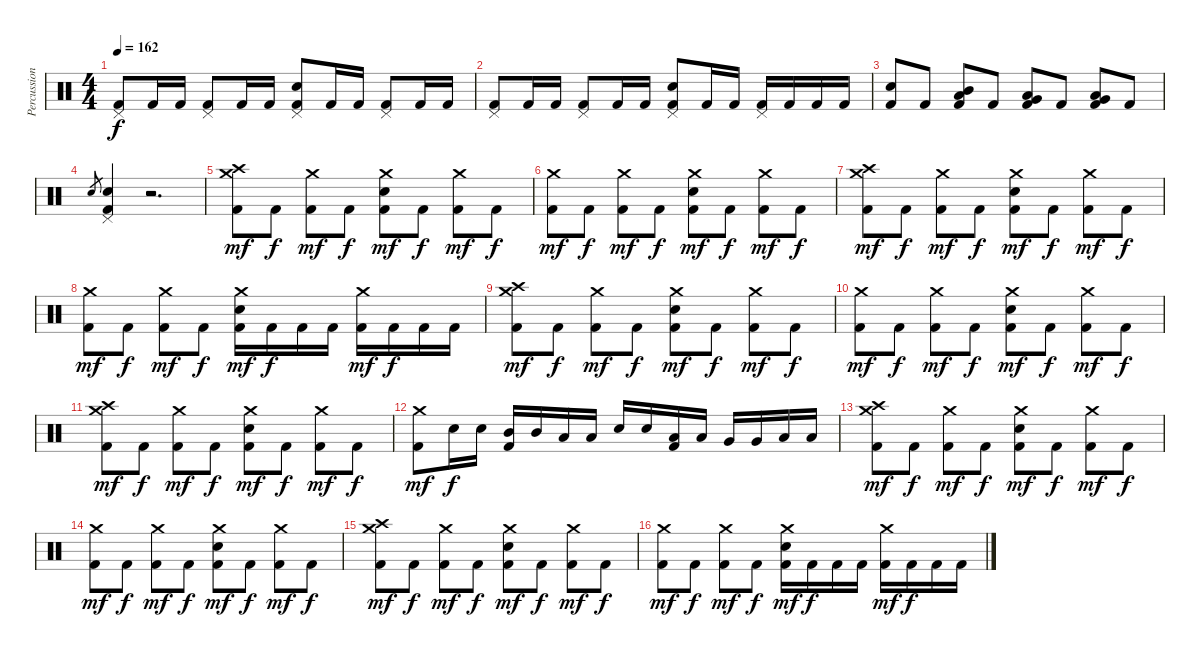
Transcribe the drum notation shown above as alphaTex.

\track ("Percussion" "Percussion") {instrument percussion}
\staff {score}
\articulation defaults
\ts (4 4)
\tempo 162
\clef neutral
\ks c
("Kick (hit) 2" "Pedal Hi-Hat (hit)").8{dy f} "Kick (hit) 2".16 "Kick (hit) 2".16 ("Kick (hit) 2" "Pedal Hi-Hat (hit)").8 "Kick (hit) 2".16 "Kick (hit) 2".16 ("Kick (hit) 2" "Snare (hit) 2" "Pedal Hi-Hat (hit)").8 "Kick (hit) 2".16 "Kick (hit) 2".16 ("Kick (hit) 2" "Pedal Hi-Hat (hit)").8 "Kick (hit) 2".16 "Kick (hit) 2".16 |
("Kick (hit) 2" "Pedal Hi-Hat (hit)").8 "Kick (hit) 2".16 "Kick (hit) 2".16 ("Kick (hit) 2" "Pedal Hi-Hat (hit)").8 "Kick (hit) 2".16 "Kick (hit) 2".16 ("Kick (hit) 2" "Snare (hit) 2" "Pedal Hi-Hat (hit)").8 "Kick (hit) 2".16 "Kick (hit) 2".16 ("Kick (hit) 2" "Pedal Hi-Hat (hit)").16 "Kick (hit) 2".16 "Kick (hit) 2".16 "Kick (hit) 2".16 |
("Kick (hit) 2" "Snare (hit) 2").8 "Kick (hit) 2".8 ("Kick (hit) 2" "Low Tom (hit)" "Mid Tom (hit)").8 "Kick (hit) 2".8 ("Kick (hit) 2" "Very Low Tom (hit)" "Low Tom (hit)").8 "Kick (hit) 2".8 ("Kick (hit) 2" "Low Floor Tom (hit)" "Very Low Tom (hit)").8 "Kick (hit) 2".8 |
"Snare (hit) 2".8{gr} ("Kick (hit) 2" "Snare (hit) 2" "Pedal Hi-Hat (hit)").4 r.2{d} |
("Kick (hit) 2" "Crash high (hit)" "Crash medium (hit)").8{dy mf} "Kick (hit) 2".8{dy f} ("Kick (hit) 2" "Crash medium (hit)").8{dy mf} "Kick (hit) 2".8{dy f} ("Kick (hit) 2" "Snare (hit) 2" "Crash medium (hit)").8{dy mf} "Kick (hit) 2".8{dy f} ("Kick (hit) 2" "Crash medium (hit)").8{dy mf} "Kick (hit) 2".8{dy f} |
("Kick (hit) 2" "Crash medium (hit)").8{dy mf} "Kick (hit) 2".8{dy f} ("Kick (hit) 2" "Crash medium (hit)").8{dy mf} "Kick (hit) 2".8{dy f} ("Kick (hit) 2" "Snare (hit) 2" "Crash medium (hit)").8{dy mf} "Kick (hit) 2".8{dy f} ("Kick (hit) 2" "Crash medium (hit)").8{dy mf} "Kick (hit) 2".8{dy f} |
("Kick (hit) 2" "Crash high (hit)" "Crash medium (hit)").8{dy mf} "Kick (hit) 2".8{dy f} ("Kick (hit) 2" "Crash medium (hit)").8{dy mf} "Kick (hit) 2".8{dy f} ("Kick (hit) 2" "Snare (hit) 2" "Crash medium (hit)").8{dy mf} "Kick (hit) 2".8{dy f} ("Kick (hit) 2" "Crash medium (hit)").8{dy mf} "Kick (hit) 2".8{dy f} |
("Kick (hit) 2" "Crash medium (hit)").8{dy mf} "Kick (hit) 2".8{dy f} ("Kick (hit) 2" "Crash medium (hit)").8{dy mf} "Kick (hit) 2".8{dy f} ("Kick (hit) 2" "Snare (hit) 2" "Crash medium (hit)").16{dy mf} "Kick (hit) 2".16{dy f} "Kick (hit) 2".16 "Kick (hit) 2".16 ("Kick (hit) 2" "Crash medium (hit)").16{dy mf} "Kick (hit) 2".16{dy f} "Kick (hit) 2".16 "Kick (hit) 2".16 |
("Kick (hit) 2" "Crash high (hit)" "Crash medium (hit)").8{dy mf} "Kick (hit) 2".8{dy f} ("Kick (hit) 2" "Crash medium (hit)").8{dy mf} "Kick (hit) 2".8{dy f} ("Kick (hit) 2" "Snare (hit) 2" "Crash medium (hit)").8{dy mf} "Kick (hit) 2".8{dy f} ("Kick (hit) 2" "Crash medium (hit)").8{dy mf} "Kick (hit) 2".8{dy f} |
("Kick (hit) 2" "Crash medium (hit)").8{dy mf} "Kick (hit) 2".8{dy f} ("Kick (hit) 2" "Crash medium (hit)").8{dy mf} "Kick (hit) 2".8{dy f} ("Kick (hit) 2" "Snare (hit) 2" "Crash medium (hit)").8{dy mf} "Kick (hit) 2".8{dy f} ("Kick (hit) 2" "Crash medium (hit)").8{dy mf} "Kick (hit) 2".8{dy f} |
("Kick (hit) 2" "Crash high (hit)" "Crash medium (hit)").8{dy mf} "Kick (hit) 2".8{dy f} ("Kick (hit) 2" "Crash medium (hit)").8{dy mf} "Kick (hit) 2".8{dy f} ("Kick (hit) 2" "Snare (hit) 2" "Crash medium (hit)").8{dy mf} "Kick (hit) 2".8{dy f} ("Kick (hit) 2" "Crash medium (hit)").8{dy mf} "Kick (hit) 2".8{dy f} |
("Kick (hit) 2" "Crash medium (hit)").8{dy mf} "Snare (hit) 2".16{dy f} "Snare (hit) 2".16 ("Kick (hit) 2" "Mid Tom (hit)").16 "Mid Tom (hit)".16 "Low Tom (hit)".16 "Low Tom (hit)".16 "Snare (hit) 2".16 "Snare (hit) 2".16 ("Kick (hit) 2" "Low Tom (hit)").16 "Low Tom (hit)".16 "Very Low Tom (hit)".16 "Very Low Tom (hit)".16 "Low Floor Tom (hit)".16 "Low Floor Tom (hit)".16 |
("Kick (hit) 2" "Crash high (hit)" "Crash medium (hit)").8{dy mf} "Kick (hit) 2".8{dy f} ("Kick (hit) 2" "Crash medium (hit)").8{dy mf} "Kick (hit) 2".8{dy f} ("Kick (hit) 2" "Snare (hit) 2" "Crash medium (hit)").8{dy mf} "Kick (hit) 2".8{dy f} ("Kick (hit) 2" "Crash medium (hit)").8{dy mf} "Kick (hit) 2".8{dy f} |
("Kick (hit) 2" "Crash medium (hit)").8{dy mf} "Kick (hit) 2".8{dy f} ("Kick (hit) 2" "Crash medium (hit)").8{dy mf} "Kick (hit) 2".8{dy f} ("Kick (hit) 2" "Snare (hit) 2" "Crash medium (hit)").8{dy mf} "Kick (hit) 2".8{dy f} ("Kick (hit) 2" "Crash medium (hit)").8{dy mf} "Kick (hit) 2".8{dy f} |
("Kick (hit) 2" "Crash high (hit)" "Crash medium (hit)").8{dy mf} "Kick (hit) 2".8{dy f} ("Kick (hit) 2" "Crash medium (hit)").8{dy mf} "Kick (hit) 2".8{dy f} ("Kick (hit) 2" "Snare (hit) 2" "Crash medium (hit)").8{dy mf} "Kick (hit) 2".8{dy f} ("Kick (hit) 2" "Crash medium (hit)").8{dy mf} "Kick (hit) 2".8{dy f} |
("Kick (hit) 2" "Crash medium (hit)").8{dy mf} "Kick (hit) 2".8{dy f} ("Kick (hit) 2" "Crash medium (hit)").8{dy mf} "Kick (hit) 2".8{dy f} ("Kick (hit) 2" "Snare (hit) 2" "Crash medium (hit)").16{dy mf} "Kick (hit) 2".16{dy f} "Kick (hit) 2".16 "Kick (hit) 2".16 ("Kick (hit) 2" "Crash medium (hit)").16{dy mf} "Kick (hit) 2".16{dy f} "Kick (hit) 2".16 "Kick (hit) 2".16
